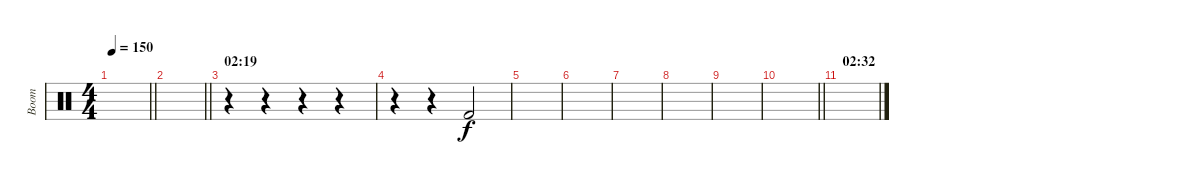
\track ("Boom" "Boom") {instrument percussion}
\staff {score}
\articulation defaults
\ts (4 4)
\tempo 150
\clef neutral
\barLineRight lightlight
\ks c
|
\barLineRight lightlight
|
\section ("" "02:19")
r.4 r.4 r.4 r.4 |
r.4 r.4 "Kick (hit) 2".2{dy f} |
|
|
|
|
|
\barLineRight lightlight
|
\section ("" "02:32")
